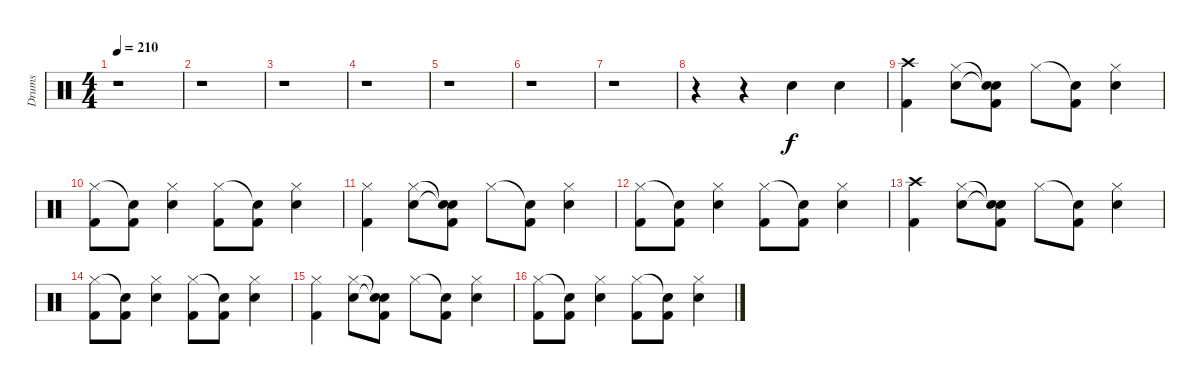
\track ("Drums" "Drums") {instrument percussion}
\staff {score}
\articulation defaults
\ts (4 4)
\tempo 210
\clef neutral
\ks c
r.1{dy f} |
r.1 |
r.1 |
r.1 |
r.1 |
r.1 |
r.1 |
r.4 r.4 "Snare (hit) 2".4 "Snare (hit) 2".4 |
("Crash high (hit)" "Kick (hit) 2").4 ("Hi-Hat (closed)" "Snare (hit) 2").8 ("Snare (hit)"{t} "Snare (hit)"{t} "Kick (hit) 2").8 "Hi-Hat (closed)".8 ("Snare (hit)"{t} "Kick (hit) 2").8 ("Hi-Hat (closed)" "Snare (hit) 2").4 |
("Hi-Hat (closed)" "Kick (hit) 2").8 ("Snare (hit)"{t} "Kick (hit) 2").8 ("Hi-Hat (closed)" "Snare (hit) 2").4 ("Hi-Hat (closed)" "Kick (hit) 2").8 ("Snare (hit)"{t} "Kick (hit) 2").8 ("Hi-Hat (closed)" "Snare (hit) 2").4 |
("Hi-Hat (closed)" "Kick (hit) 2").4 ("Hi-Hat (closed)" "Snare (hit) 2").8 ("Snare (hit)"{t} "Snare (hit)"{t} "Kick (hit) 2").8 "Hi-Hat (closed)".8 ("Snare (hit)"{t} "Kick (hit) 2").8 ("Hi-Hat (closed)" "Snare (hit) 2").4 |
("Hi-Hat (closed)" "Kick (hit) 2").8 ("Snare (hit)"{t} "Kick (hit) 2").8 ("Hi-Hat (closed)" "Snare (hit) 2").4 ("Hi-Hat (closed)" "Kick (hit) 2").8 ("Snare (hit)"{t} "Kick (hit) 2").8 ("Hi-Hat (closed)" "Snare (hit) 2").4 |
("Crash high (hit)" "Kick (hit) 2").4 ("Hi-Hat (closed)" "Snare (hit) 2").8 ("Snare (hit)"{t} "Snare (hit)"{t} "Kick (hit) 2").8 "Hi-Hat (closed)".8 ("Snare (hit)"{t} "Kick (hit) 2").8 ("Hi-Hat (closed)" "Snare (hit) 2").4 |
("Hi-Hat (closed)" "Kick (hit) 2").8 ("Snare (hit)"{t} "Kick (hit) 2").8 ("Hi-Hat (closed)" "Snare (hit) 2").4 ("Hi-Hat (closed)" "Kick (hit) 2").8 ("Snare (hit)"{t} "Kick (hit) 2").8 ("Hi-Hat (closed)" "Snare (hit) 2").4 |
("Hi-Hat (closed)" "Kick (hit) 2").4 ("Hi-Hat (closed)" "Snare (hit) 2").8 ("Snare (hit)"{t} "Snare (hit)"{t} "Kick (hit) 2").8 "Hi-Hat (closed)".8 ("Snare (hit)"{t} "Kick (hit) 2").8 ("Hi-Hat (closed)" "Snare (hit) 2").4 |
("Hi-Hat (closed)" "Kick (hit) 2").8 ("Snare (hit)"{t} "Kick (hit) 2").8 ("Hi-Hat (closed)" "Snare (hit) 2").4 ("Hi-Hat (closed)" "Kick (hit) 2").8 ("Snare (hit)"{t} "Kick (hit) 2").8 ("Hi-Hat (closed)" "Snare (hit) 2").4
